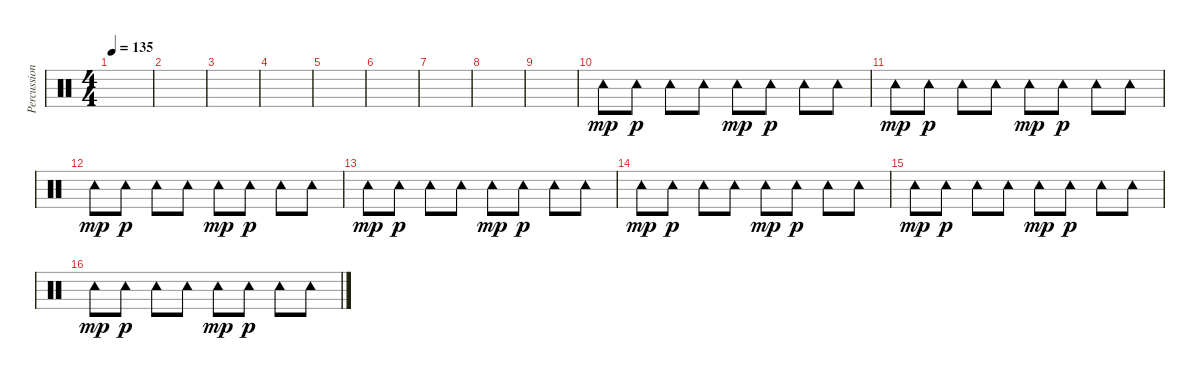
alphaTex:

\track ("Percussion2" "Percussion") {instrument percussion}
\staff {score}
\articulation defaults
\ts (4 4)
\tempo 135
\clef neutral
\ks c
|
|
|
|
|
|
|
|
|
"Tambourine (hit)".8{dy mp} "Tambourine (hit)".8{dy p} "Tambourine (hit)".8 "Tambourine (hit)".8 "Tambourine (hit)".8{dy mp} "Tambourine (hit)".8{dy p} "Tambourine (hit)".8 "Tambourine (hit)".8 |
"Tambourine (hit)".8{dy mp} "Tambourine (hit)".8{dy p} "Tambourine (hit)".8 "Tambourine (hit)".8 "Tambourine (hit)".8{dy mp} "Tambourine (hit)".8{dy p} "Tambourine (hit)".8 "Tambourine (hit)".8 |
"Tambourine (hit)".8{dy mp} "Tambourine (hit)".8{dy p} "Tambourine (hit)".8 "Tambourine (hit)".8 "Tambourine (hit)".8{dy mp} "Tambourine (hit)".8{dy p} "Tambourine (hit)".8 "Tambourine (hit)".8 |
"Tambourine (hit)".8{dy mp} "Tambourine (hit)".8{dy p} "Tambourine (hit)".8 "Tambourine (hit)".8 "Tambourine (hit)".8{dy mp} "Tambourine (hit)".8{dy p} "Tambourine (hit)".8 "Tambourine (hit)".8 |
"Tambourine (hit)".8{dy mp} "Tambourine (hit)".8{dy p} "Tambourine (hit)".8 "Tambourine (hit)".8 "Tambourine (hit)".8{dy mp} "Tambourine (hit)".8{dy p} "Tambourine (hit)".8 "Tambourine (hit)".8 |
"Tambourine (hit)".8{dy mp} "Tambourine (hit)".8{dy p} "Tambourine (hit)".8 "Tambourine (hit)".8 "Tambourine (hit)".8{dy mp} "Tambourine (hit)".8{dy p} "Tambourine (hit)".8 "Tambourine (hit)".8 |
"Tambourine (hit)".8{dy mp} "Tambourine (hit)".8{dy p} "Tambourine (hit)".8 "Tambourine (hit)".8 "Tambourine (hit)".8{dy mp} "Tambourine (hit)".8{dy p} "Tambourine (hit)".8 "Tambourine (hit)".8
